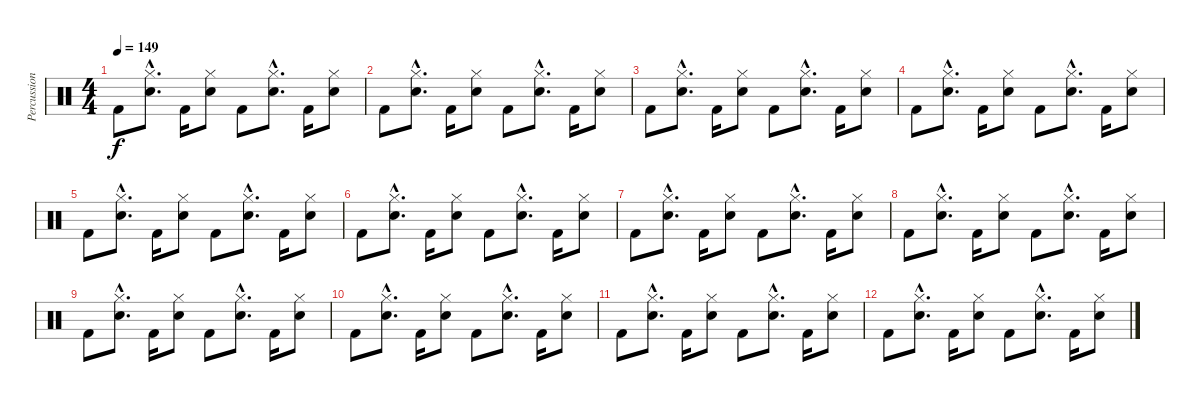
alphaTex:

\track ("Percussion" "Percussion") {instrument percussion}
\staff {score}
\articulation defaults
\ts (4 4)
\tempo 149
\clef neutral
\ks c "Kick (hit) 2".8{dy f}
("Snare (hit) 2"{hac} "Hi-Hat (closed)"{hac}).8{d} "Kick (hit) 2".16 ("Snare (hit) 2" "Hi-Hat (closed)").8 "Kick (hit) 2".8 ("Snare (hit) 2"{hac} "Hi-Hat (closed)"{hac}).8{d} "Kick (hit) 2".16 ("Snare (hit) 2" "Hi-Hat (closed)").8 |
"Kick (hit) 2".8 ("Snare (hit) 2"{hac} "Hi-Hat (closed)"{hac}).8{d} "Kick (hit) 2".16 ("Snare (hit) 2" "Hi-Hat (closed)").8 "Kick (hit) 2".8 ("Snare (hit) 2"{hac} "Hi-Hat (closed)"{hac}).8{d} "Kick (hit) 2".16 ("Snare (hit) 2" "Hi-Hat (closed)").8 |
"Kick (hit) 2".8 ("Snare (hit) 2"{hac} "Hi-Hat (closed)"{hac}).8{d} "Kick (hit) 2".16 ("Snare (hit) 2" "Hi-Hat (closed)").8 "Kick (hit) 2".8 ("Snare (hit) 2"{hac} "Hi-Hat (closed)"{hac}).8{d} "Kick (hit) 2".16 ("Snare (hit) 2" "Hi-Hat (closed)").8 |
"Kick (hit) 2".8 ("Snare (hit) 2"{hac} "Hi-Hat (closed)"{hac}).8{d} "Kick (hit) 2".16 ("Snare (hit) 2" "Hi-Hat (closed)").8 "Kick (hit) 2".8 ("Snare (hit) 2"{hac} "Hi-Hat (closed)"{hac}).8{d} "Kick (hit) 2".16 ("Snare (hit) 2" "Hi-Hat (closed)").8 |
"Kick (hit) 2".8 ("Snare (hit) 2"{hac} "Hi-Hat (closed)"{hac}).8{d} "Kick (hit) 2".16 ("Snare (hit) 2" "Hi-Hat (closed)").8 "Kick (hit) 2".8 ("Snare (hit) 2"{hac} "Hi-Hat (closed)"{hac}).8{d} "Kick (hit) 2".16 ("Snare (hit) 2" "Hi-Hat (closed)").8 |
"Kick (hit) 2".8 ("Snare (hit) 2"{hac} "Hi-Hat (closed)"{hac}).8{d} "Kick (hit) 2".16 ("Snare (hit) 2" "Hi-Hat (closed)").8 "Kick (hit) 2".8 ("Snare (hit) 2"{hac} "Hi-Hat (closed)"{hac}).8{d} "Kick (hit) 2".16 ("Snare (hit) 2" "Hi-Hat (closed)").8 |
"Kick (hit) 2".8 ("Snare (hit) 2"{hac} "Hi-Hat (closed)"{hac}).8{d} "Kick (hit) 2".16 ("Snare (hit) 2" "Hi-Hat (closed)").8 "Kick (hit) 2".8 ("Snare (hit) 2"{hac} "Hi-Hat (closed)"{hac}).8{d} "Kick (hit) 2".16 ("Snare (hit) 2" "Hi-Hat (closed)").8 |
"Kick (hit) 2".8 ("Snare (hit) 2"{hac} "Hi-Hat (closed)"{hac}).8{d} "Kick (hit) 2".16 ("Snare (hit) 2" "Hi-Hat (closed)").8 "Kick (hit) 2".8 ("Snare (hit) 2"{hac} "Hi-Hat (closed)"{hac}).8{d} "Kick (hit) 2".16 ("Snare (hit) 2" "Hi-Hat (closed)").8 |
"Kick (hit) 2".8 ("Snare (hit) 2"{hac} "Hi-Hat (closed)"{hac}).8{d} "Kick (hit) 2".16 ("Snare (hit) 2" "Hi-Hat (closed)").8 "Kick (hit) 2".8 ("Snare (hit) 2"{hac} "Hi-Hat (closed)"{hac}).8{d} "Kick (hit) 2".16 ("Snare (hit) 2" "Hi-Hat (closed)").8 |
"Kick (hit) 2".8 ("Snare (hit) 2"{hac} "Hi-Hat (closed)"{hac}).8{d} "Kick (hit) 2".16 ("Snare (hit) 2" "Hi-Hat (closed)").8 "Kick (hit) 2".8 ("Snare (hit) 2"{hac} "Hi-Hat (closed)"{hac}).8{d} "Kick (hit) 2".16 ("Snare (hit) 2" "Hi-Hat (closed)").8 |
"Kick (hit) 2".8 ("Snare (hit) 2"{hac} "Hi-Hat (closed)"{hac}).8{d} "Kick (hit) 2".16 ("Snare (hit) 2" "Hi-Hat (closed)").8 "Kick (hit) 2".8 ("Snare (hit) 2"{hac} "Hi-Hat (closed)"{hac}).8{d} "Kick (hit) 2".16 ("Snare (hit) 2" "Hi-Hat (closed)").8 |
"Kick (hit) 2".8 ("Snare (hit) 2"{hac} "Hi-Hat (closed)"{hac}).8{d} "Kick (hit) 2".16 ("Snare (hit) 2" "Hi-Hat (closed)").8 "Kick (hit) 2".8 ("Snare (hit) 2"{hac} "Hi-Hat (closed)"{hac}).8{d} "Kick (hit) 2".16 ("Snare (hit) 2" "Hi-Hat (closed)").8
